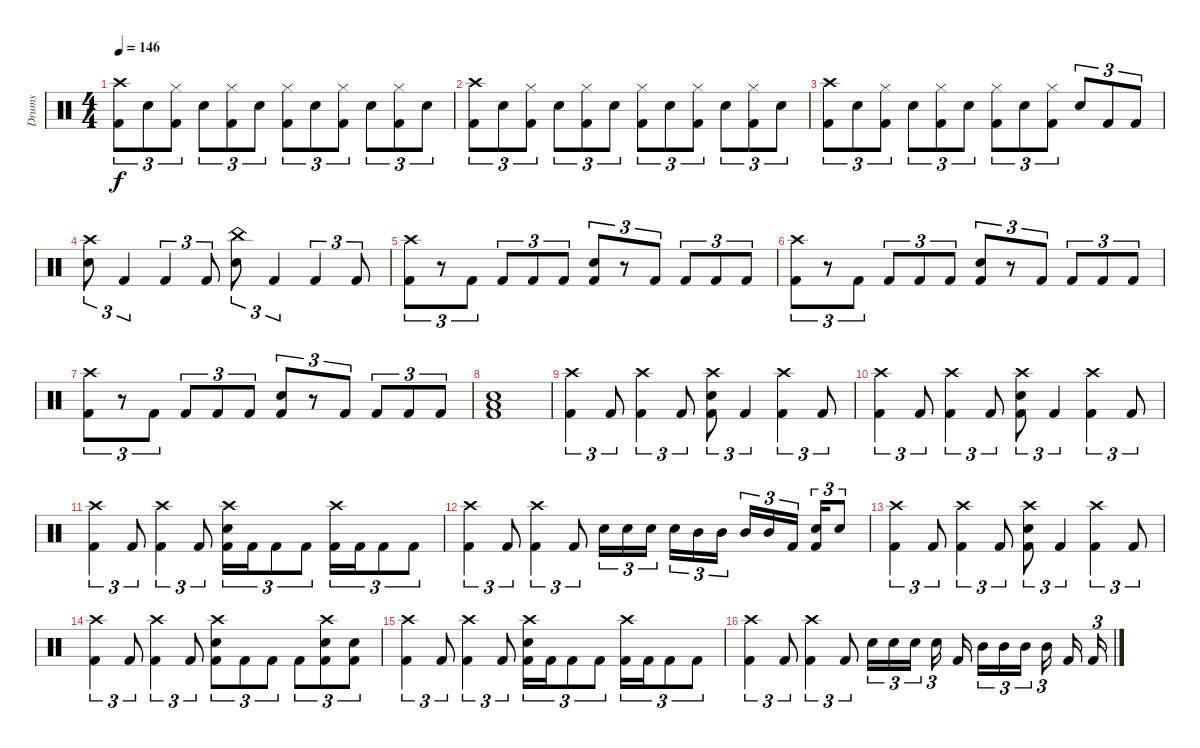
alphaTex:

\track ("Drums" "Drums") {instrument percussion}
\staff {score}
\articulation defaults
\ts (4 4)
\tempo 146
\clef neutral
\ks c
("Crash high (hit)" "Kick (hit) 2").8{tu (3 2) dy f} "Snare (hit) 2".8{tu (3 2)} ("Hi-Hat (closed)" "Kick (hit) 2").8{tu (3 2)} "Snare (hit) 2".8{tu (3 2)} ("Hi-Hat (closed)" "Kick (hit) 2").8{tu (3 2)} "Snare (hit) 2".8{tu (3 2)} ("Hi-Hat (closed)" "Kick (hit) 2").8{tu (3 2)} "Snare (hit) 2".8{tu (3 2)} ("Hi-Hat (closed)" "Kick (hit) 2").8{tu (3 2)} "Snare (hit) 2".8{tu (3 2)} ("Hi-Hat (closed)" "Kick (hit) 2").8{tu (3 2)} "Snare (hit) 2".8{tu (3 2)} |
("Crash high (hit)" "Kick (hit) 2").8{tu (3 2)} "Snare (hit) 2".8{tu (3 2)} ("Hi-Hat (closed)" "Kick (hit) 2").8{tu (3 2)} "Snare (hit) 2".8{tu (3 2)} ("Hi-Hat (closed)" "Kick (hit) 2").8{tu (3 2)} "Snare (hit) 2".8{tu (3 2)} ("Hi-Hat (closed)" "Kick (hit) 2").8{tu (3 2)} "Snare (hit) 2".8{tu (3 2)} ("Hi-Hat (closed)" "Kick (hit) 2").8{tu (3 2)} "Snare (hit) 2".8{tu (3 2)} ("Hi-Hat (closed)" "Kick (hit) 2").8{tu (3 2)} "Snare (hit) 2".8{tu (3 2)} |
("Crash high (hit)" "Kick (hit) 2").8{tu (3 2)} "Snare (hit) 2".8{tu (3 2)} ("Hi-Hat (closed)" "Kick (hit) 2").8{tu (3 2)} "Snare (hit) 2".8{tu (3 2)} ("Hi-Hat (closed)" "Kick (hit) 2").8{tu (3 2)} "Snare (hit) 2".8{tu (3 2)} ("Hi-Hat (closed)" "Kick (hit) 2").8{tu (3 2)} "Snare (hit) 2".8{tu (3 2)} ("Hi-Hat (closed)" "Kick (hit) 2").8{tu (3 2)} "Snare (hit) 2".8{tu (3 2)} "Kick (hit) 2".8{tu (3 2)} "Kick (hit) 2".8{tu (3 2)} |
("Crash high (hit)" "Snare (hit) 2").8{tu (3 2)} "Kick (hit) 2".4{tu (3 2)} "Kick (hit) 2".4{tu (3 2)} "Kick (hit) 2".8{tu (3 2)} ("China (hit)" "Snare (hit) 2").8{tu (3 2)} "Kick (hit) 2".4{tu (3 2)} "Kick (hit) 2".4{tu (3 2)} "Kick (hit) 2".8{tu (3 2)} |
("Crash high (hit)" "Kick (hit) 2").8{tu (3 2)} r.8{tu (3 2)} "Kick (hit) 2".8{tu (3 2)} "Kick (hit) 2".8{tu (3 2)} "Kick (hit) 2".8{tu (3 2)} "Kick (hit) 2".8{tu (3 2)} ("Snare (hit) 2" "Kick (hit) 2").8{tu (3 2)} r.8{tu (3 2)} "Kick (hit) 2".8{tu (3 2)} "Kick (hit) 2".8{tu (3 2)} "Kick (hit) 2".8{tu (3 2)} "Kick (hit) 2".8{tu (3 2)} |
("Crash high (hit)" "Kick (hit) 2").8{tu (3 2)} r.8{tu (3 2)} "Kick (hit) 2".8{tu (3 2)} "Kick (hit) 2".8{tu (3 2)} "Kick (hit) 2".8{tu (3 2)} "Kick (hit) 2".8{tu (3 2)} ("Snare (hit) 2" "Kick (hit) 2").8{tu (3 2)} r.8{tu (3 2)} "Kick (hit) 2".8{tu (3 2)} "Kick (hit) 2".8{tu (3 2)} "Kick (hit) 2".8{tu (3 2)} "Kick (hit) 2".8{tu (3 2)} |
("Crash high (hit)" "Kick (hit) 2").8{tu (3 2)} r.8{tu (3 2)} "Kick (hit) 2".8{tu (3 2)} "Kick (hit) 2".8{tu (3 2)} "Kick (hit) 2".8{tu (3 2)} "Kick (hit) 2".8{tu (3 2)} ("Snare (hit) 2" "Kick (hit) 2").8{tu (3 2)} r.8{tu (3 2)} "Kick (hit) 2".8{tu (3 2)} "Kick (hit) 2".8{tu (3 2)} "Kick (hit) 2".8{tu (3 2)} "Kick (hit) 2".8{tu (3 2)} |
("Low Floor Tom (hit)" "Snare (hit) 2" "Kick (hit) 2").1 |
("Crash high (hit)" "Kick (hit) 2").4{tu (3 2)} "Kick (hit) 2".8{tu (3 2)} ("Crash high (hit)" "Kick (hit) 2").4{tu (3 2)} "Kick (hit) 2".8{tu (3 2)} ("Crash high (hit)" "Snare (hit) 2" "Kick (hit) 2").8{tu (3 2)} "Kick (hit) 2".4{tu (3 2)} ("Crash high (hit)" "Kick (hit) 2").4{tu (3 2)} "Kick (hit) 2".8{tu (3 2)} |
("Crash high (hit)" "Kick (hit) 2").4{tu (3 2)} "Kick (hit) 2".8{tu (3 2)} ("Crash high (hit)" "Kick (hit) 2").4{tu (3 2)} "Kick (hit) 2".8{tu (3 2)} ("Crash high (hit)" "Snare (hit) 2" "Kick (hit) 2").8{tu (3 2)} "Kick (hit) 2".4{tu (3 2)} ("Crash high (hit)" "Kick (hit) 2").4{tu (3 2)} "Kick (hit) 2".8{tu (3 2)} |
("Crash high (hit)" "Kick (hit) 2").4{tu (3 2)} "Kick (hit) 2".8{tu (3 2)} ("Crash high (hit)" "Kick (hit) 2").4{tu (3 2)} "Kick (hit) 2".8{tu (3 2)} ("Crash high (hit)" "Snare (hit) 2" "Kick (hit) 2").16{tu (3 2)} "Kick (hit) 2".16{tu (3 2)} "Kick (hit) 2".8{tu (3 2)} "Kick (hit) 2".8{tu (3 2)} ("Crash high (hit)" "Kick (hit) 2").16{tu (3 2)} "Kick (hit) 2".16{tu (3 2)} "Kick (hit) 2".8{tu (3 2)} "Kick (hit) 2".8{tu (3 2)} |
("Crash high (hit)" "Kick (hit) 2").4{tu (3 2)} "Kick (hit) 2".8{tu (3 2)} ("Crash high (hit)" "Kick (hit) 2").4{tu (3 2)} "Kick (hit) 2".8{tu (3 2)} "Snare (hit) 2".16{tu (3 2)} "Snare (hit) 2".16{tu (3 2)} "Snare (hit) 2".16{tu (3 2)} "Snare (hit) 2".16{tu (3 2)} "Mid Tom (hit)".16{tu (3 2)} "Mid Tom (hit)".16{tu (3 2)} "Mid Tom (hit)".16{tu (3 2)} "Mid Tom (hit)".16{tu (3 2)} "Kick (hit) 2".16{tu (3 2)} ("Snare (hit) 2" "Kick (hit) 2").16{tu (3 2)} "Snare (hit) 2".8{tu (3 2)} |
("Crash high (hit)" "Kick (hit) 2").4{tu (3 2)} "Kick (hit) 2".8{tu (3 2)} ("Crash high (hit)" "Kick (hit) 2").4{tu (3 2)} "Kick (hit) 2".8{tu (3 2)} ("Crash high (hit)" "Snare (hit) 2" "Kick (hit) 2").8{tu (3 2)} "Kick (hit) 2".4{tu (3 2)} ("Crash high (hit)" "Kick (hit) 2").4{tu (3 2)} "Kick (hit) 2".8{tu (3 2)} |
("Crash high (hit)" "Kick (hit) 2").4{tu (3 2)} "Kick (hit) 2".8{tu (3 2)} ("Crash high (hit)" "Kick (hit) 2").4{tu (3 2)} "Kick (hit) 2".8{tu (3 2)} ("Crash high (hit)" "Snare (hit) 2" "Kick (hit) 2").8{tu (3 2)} "Kick (hit) 2".8{tu (3 2)} "Kick (hit) 2".8{tu (3 2)} "Kick (hit) 2".8{tu (3 2)} ("Crash high (hit)" "Snare (hit) 2" "Kick (hit) 2").8{tu (3 2)} ("Snare (hit) 2" "Kick (hit) 2").8{tu (3 2)} |
("Crash high (hit)" "Kick (hit) 2").4{tu (3 2)} "Kick (hit) 2".8{tu (3 2)} ("Crash high (hit)" "Kick (hit) 2").4{tu (3 2)} "Kick (hit) 2".8{tu (3 2)} ("Crash high (hit)" "Snare (hit) 2" "Kick (hit) 2").16{tu (3 2)} "Kick (hit) 2".16{tu (3 2)} "Kick (hit) 2".8{tu (3 2)} "Kick (hit) 2".8{tu (3 2)} ("Crash high (hit)" "Kick (hit) 2").16{tu (3 2)} "Kick (hit) 2".16{tu (3 2)} "Kick (hit) 2".8{tu (3 2)} "Kick (hit) 2".8{tu (3 2)} |
("Crash high (hit)" "Kick (hit) 2").4{tu (3 2)} "Kick (hit) 2".8{tu (3 2)} ("Crash high (hit)" "Kick (hit) 2").4{tu (3 2)} "Kick (hit) 2".8{tu (3 2)} "Snare (hit) 2".16{tu (3 2)} "Snare (hit) 2".16{tu (3 2)} "Snare (hit) 2".16{tu (3 2)} "Snare (hit) 2".16{tu (3 2)} "Kick (hit) 2".16 "Mid Tom (hit)".16{tu (3 2)} "Mid Tom (hit)".16{tu (3 2)} "Mid Tom (hit)".16{tu (3 2)} "Mid Tom (hit)".16{tu (3 2)} "Kick (hit) 2".16 "Kick (hit) 2".16{tu (3 2)}
